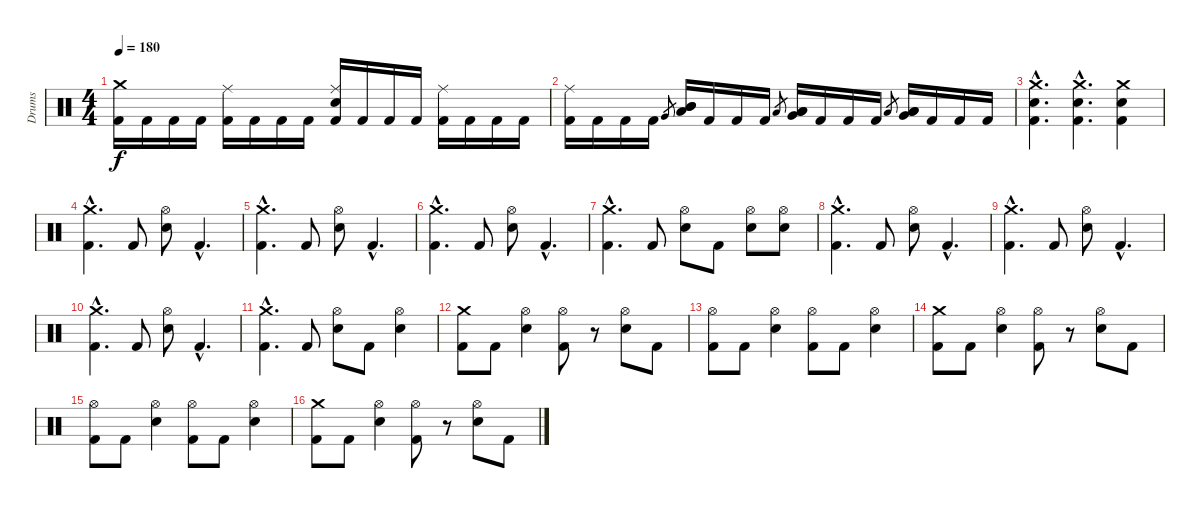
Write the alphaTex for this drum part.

\track ("Drums" "Drums") {instrument percussion}
\staff {score}
\articulation defaults
\ts (4 4)
\tempo 180
\clef neutral
\ks c
("Crash medium (hit)" "Kick (hit) 2").16{dy f} "Kick (hit) 2".16 "Kick (hit) 2".16 "Kick (hit) 2".16 ("Ride (middle)" "Kick (hit) 2").16 "Kick (hit) 2".16 "Kick (hit) 2".16 "Kick (hit) 2".16 ("Ride (middle)" "Kick (hit) 2" "Electric Snare (hit)").16 "Kick (hit) 2".16 "Kick (hit) 2".16 "Kick (hit) 2".16 ("Ride (middle)" "Kick (hit) 2").16 "Kick (hit) 2".16 "Kick (hit) 2".16 "Kick (hit) 2".16 |
("Ride (middle)" "Kick (hit) 2").16 "Kick (hit) 2".16 "Kick (hit) 2".16 "Kick (hit) 2".16 "Very Low Tom (hit)".8{gr} ("Mid Tom (hit)" "Mid Tom (hit)" "Low Tom (hit)").16 "Kick (hit) 2".16 "Kick (hit) 2".16 "Kick (hit) 2".16 "Low Floor Tom (hit)".8{gr} ("Low Tom (hit)" "Low Tom (hit)" "Very Low Tom (hit)").16 "Kick (hit) 2".16 "Kick (hit) 2".16 "Kick (hit) 2".16 "Low Floor Tom (hit)".8{gr} ("Low Tom (hit)" "Very Low Tom (hit)" "Low Floor Tom (hit)").16 "Kick (hit) 2".16 "Kick (hit) 2".16 "Kick (hit) 2".16 |
("Crash medium (hit)"{hac} "Kick (hit) 2"{hac} "Electric Snare (hit)"{hac}).4{d} ("Crash medium (hit)"{hac} "Kick (hit) 2"{hac} "Electric Snare (hit)"{hac}).4{d} ("Crash medium (hit)" "Kick (hit) 2" "Electric Snare (hit)").4 |
("Kick (hit) 2"{hac} "Crash medium (hit)"{hac}).4{d} "Kick (hit) 2".8 ("Electric Snare (hit)" "Hi-Hat (open)").8 "Kick (hit) 2"{hac}.4{d} |
("Kick (hit) 2"{hac} "Crash medium (hit)"{hac}).4{d} "Kick (hit) 2".8 ("Electric Snare (hit)" "Hi-Hat (open)").8 "Kick (hit) 2"{hac}.4{d} |
("Kick (hit) 2"{hac} "Crash medium (hit)"{hac}).4{d} "Kick (hit) 2".8 ("Electric Snare (hit)" "Hi-Hat (open)").8 "Kick (hit) 2"{hac}.4{d} |
("Kick (hit) 2"{hac} "Crash medium (hit)"{hac}).4{d} "Kick (hit) 2".8 ("Electric Snare (hit)" "Hi-Hat (open)").8 "Kick (hit) 2".8 ("Electric Snare (hit)" "Hi-Hat (open)").8 ("Electric Snare (hit)" "Hi-Hat (open)").8 |
("Kick (hit) 2"{hac} "Crash medium (hit)"{hac}).4{d} "Kick (hit) 2".8 ("Electric Snare (hit)" "Hi-Hat (open)").8 "Kick (hit) 2"{hac}.4{d} |
("Kick (hit) 2"{hac} "Crash medium (hit)"{hac}).4{d} "Kick (hit) 2".8 ("Electric Snare (hit)" "Hi-Hat (open)").8 "Kick (hit) 2"{hac}.4{d} |
("Kick (hit) 2"{hac} "Crash medium (hit)"{hac}).4{d} "Kick (hit) 2".8 ("Electric Snare (hit)" "Hi-Hat (open)").8 "Kick (hit) 2"{hac}.4{d} |
("Kick (hit) 2"{hac} "Crash medium (hit)"{hac}).4{d} "Kick (hit) 2".8 ("Electric Snare (hit)" "Hi-Hat (open)").8 "Kick (hit) 2".8 ("Electric Snare (hit)" "Hi-Hat (open)").4 |
("Kick (hit) 2" "Crash medium (hit)").8 "Kick (hit) 2".8 ("Hi-Hat (open)" "Electric Snare (hit)").4 ("Hi-Hat (open)" "Kick (hit) 2").8 r.8 ("Hi-Hat (open)" "Electric Snare (hit)").8 "Kick (hit) 2".8 |
("Kick (hit) 2" "Hi-Hat (open)").8 "Kick (hit) 2".8 ("Hi-Hat (open)" "Electric Snare (hit)").4 ("Hi-Hat (open)" "Kick (hit) 2").8 "Kick (hit) 2".8 ("Hi-Hat (open)" "Electric Snare (hit)").4 |
("Kick (hit) 2" "Crash medium (hit)").8 "Kick (hit) 2".8 ("Hi-Hat (open)" "Electric Snare (hit)").4 ("Hi-Hat (open)" "Kick (hit) 2").8 r.8 ("Hi-Hat (open)" "Electric Snare (hit)").8 "Kick (hit) 2".8 |
("Kick (hit) 2" "Hi-Hat (open)").8 "Kick (hit) 2".8 ("Hi-Hat (open)" "Electric Snare (hit)").4 ("Hi-Hat (open)" "Kick (hit) 2").8 "Kick (hit) 2".8 ("Hi-Hat (open)" "Electric Snare (hit)").4 |
("Kick (hit) 2" "Crash medium (hit)").8 "Kick (hit) 2".8 ("Hi-Hat (open)" "Electric Snare (hit)").4 ("Hi-Hat (open)" "Kick (hit) 2").8 r.8 ("Hi-Hat (open)" "Electric Snare (hit)").8 "Kick (hit) 2".8
